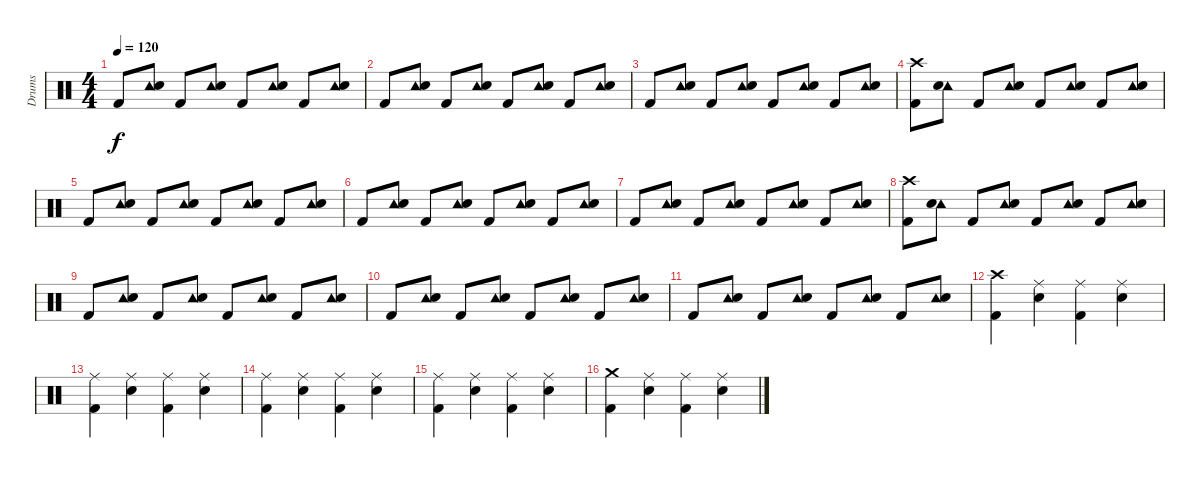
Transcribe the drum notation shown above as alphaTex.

\track ("Drums" "Drums") {instrument percussion}
\staff {score}
\articulation defaults
\ts (4 4)
\tempo 120
\clef neutral
\ks c "Kick (hit) 2".8{dy f}
("Tambourine (hit)" "Electric Snare (hit)").8 "Kick (hit) 2".8 ("Tambourine (hit)" "Electric Snare (hit)").8 "Kick (hit) 2".8 ("Tambourine (hit)" "Electric Snare (hit)").8 "Kick (hit) 2".8 ("Tambourine (hit)" "Electric Snare (hit)").8 |
"Kick (hit) 2".8 ("Tambourine (hit)" "Electric Snare (hit)").8 "Kick (hit) 2".8 ("Tambourine (hit)" "Electric Snare (hit)").8 "Kick (hit) 2".8 ("Tambourine (hit)" "Electric Snare (hit)").8 "Kick (hit) 2".8 ("Tambourine (hit)" "Electric Snare (hit)").8 |
"Kick (hit) 2".8 ("Tambourine (hit)" "Electric Snare (hit)").8 "Kick (hit) 2".8 ("Tambourine (hit)" "Electric Snare (hit)").8 "Kick (hit) 2".8 ("Tambourine (hit)" "Electric Snare (hit)").8 "Kick (hit) 2".8 ("Tambourine (hit)" "Electric Snare (hit)").8 |
("Crash high (hit)" "Kick (hit) 2").8 ("Tambourine (hit)" "Electric Snare (hit)").8 "Kick (hit) 2".8 ("Tambourine (hit)" "Electric Snare (hit)").8 "Kick (hit) 2".8 ("Tambourine (hit)" "Electric Snare (hit)").8 "Kick (hit) 2".8 ("Tambourine (hit)" "Electric Snare (hit)").8 |
"Kick (hit) 2".8 ("Tambourine (hit)" "Electric Snare (hit)").8 "Kick (hit) 2".8 ("Tambourine (hit)" "Electric Snare (hit)").8 "Kick (hit) 2".8 ("Tambourine (hit)" "Electric Snare (hit)").8 "Kick (hit) 2".8 ("Tambourine (hit)" "Electric Snare (hit)").8 |
"Kick (hit) 2".8 ("Tambourine (hit)" "Electric Snare (hit)").8 "Kick (hit) 2".8 ("Tambourine (hit)" "Electric Snare (hit)").8 "Kick (hit) 2".8 ("Tambourine (hit)" "Electric Snare (hit)").8 "Kick (hit) 2".8 ("Tambourine (hit)" "Electric Snare (hit)").8 |
"Kick (hit) 2".8 ("Tambourine (hit)" "Electric Snare (hit)").8 "Kick (hit) 2".8 ("Tambourine (hit)" "Electric Snare (hit)").8 "Kick (hit) 2".8 ("Tambourine (hit)" "Electric Snare (hit)").8 "Kick (hit) 2".8 ("Tambourine (hit)" "Electric Snare (hit)").8 |
("Crash high (hit)" "Kick (hit) 2").8 ("Tambourine (hit)" "Electric Snare (hit)").8 "Kick (hit) 2".8 ("Tambourine (hit)" "Electric Snare (hit)").8 "Kick (hit) 2".8 ("Tambourine (hit)" "Electric Snare (hit)").8 "Kick (hit) 2".8 ("Tambourine (hit)" "Electric Snare (hit)").8 |
"Kick (hit) 2".8 ("Tambourine (hit)" "Electric Snare (hit)").8 "Kick (hit) 2".8 ("Tambourine (hit)" "Electric Snare (hit)").8 "Kick (hit) 2".8 ("Tambourine (hit)" "Electric Snare (hit)").8 "Kick (hit) 2".8 ("Tambourine (hit)" "Electric Snare (hit)").8 |
"Kick (hit) 2".8 ("Tambourine (hit)" "Electric Snare (hit)").8 "Kick (hit) 2".8 ("Tambourine (hit)" "Electric Snare (hit)").8 "Kick (hit) 2".8 ("Tambourine (hit)" "Electric Snare (hit)").8 "Kick (hit) 2".8 ("Tambourine (hit)" "Electric Snare (hit)").8 |
"Kick (hit) 2".8 ("Tambourine (hit)" "Electric Snare (hit)").8 "Kick (hit) 2".8 ("Tambourine (hit)" "Electric Snare (hit)").8 "Kick (hit) 2".8 ("Tambourine (hit)" "Electric Snare (hit)").8 "Kick (hit) 2".8 ("Tambourine (hit)" "Electric Snare (hit)").8 |
("Crash high (hit)" "Kick (hit) 2").4 ("Ride (middle)" "Electric Snare (hit)").4 ("Ride (middle)" "Kick (hit) 2").4 ("Ride (middle)" "Electric Snare (hit)").4 |
("Ride (middle)" "Kick (hit) 2").4 ("Ride (middle)" "Electric Snare (hit)").4 ("Ride (middle)" "Kick (hit) 2").4 ("Ride (middle)" "Electric Snare (hit)").4 |
("Ride (middle)" "Kick (hit) 2").4 ("Ride (middle)" "Electric Snare (hit)").4 ("Ride (middle)" "Kick (hit) 2").4 ("Ride (middle)" "Electric Snare (hit)").4 |
("Ride (middle)" "Kick (hit) 2").4 ("Ride (middle)" "Electric Snare (hit)").4 ("Ride (middle)" "Kick (hit) 2").4 ("Ride (middle)" "Electric Snare (hit)").4 |
("Crash medium (hit)" "Kick (hit) 2").4 ("Ride (middle)" "Electric Snare (hit)").4 ("Ride (middle)" "Kick (hit) 2").4 ("Ride (middle)" "Electric Snare (hit)").4
